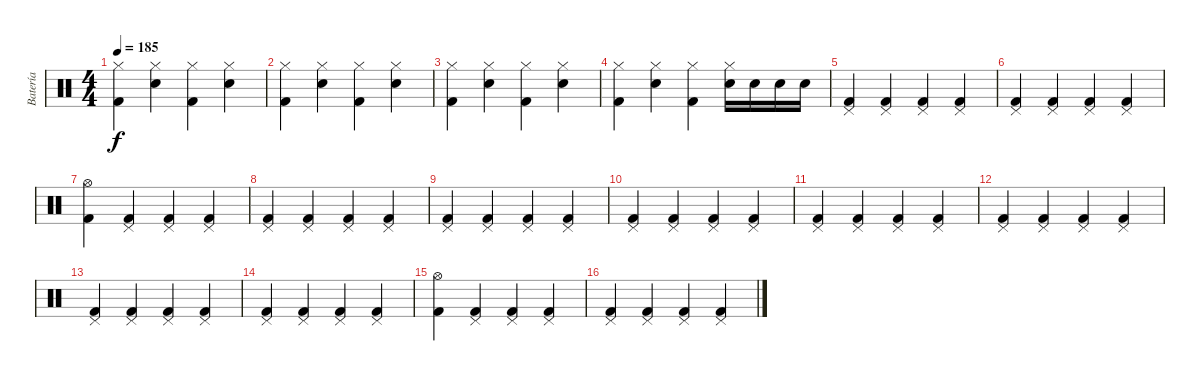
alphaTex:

\track ("Batería" "Batería") {instrument percussion}
\staff {score}
\articulation defaults
\ts (4 4)
\tempo 185
\clef neutral
\ks c
("Hi-Hat (closed)" "Kick (hit) 2").4{dy f} ("Hi-Hat (closed)" "Snare (hit) 2").4 ("Hi-Hat (closed)" "Kick (hit) 2").4 ("Hi-Hat (closed)" "Snare (hit) 2").4 |
("Hi-Hat (closed)" "Kick (hit) 2").4 ("Hi-Hat (closed)" "Snare (hit) 2").4 ("Hi-Hat (closed)" "Kick (hit) 2").4 ("Hi-Hat (closed)" "Snare (hit) 2").4 |
("Hi-Hat (closed)" "Kick (hit) 2").4 ("Hi-Hat (closed)" "Snare (hit) 2").4 ("Hi-Hat (closed)" "Kick (hit) 2").4 ("Hi-Hat (closed)" "Snare (hit) 2").4 |
("Hi-Hat (closed)" "Kick (hit) 2").4 ("Hi-Hat (closed)" "Snare (hit) 2").4 ("Hi-Hat (closed)" "Kick (hit) 2").4 ("Snare (hit) 2" "Hi-Hat (closed)").16 "Snare (hit) 2".16 "Snare (hit) 2".16 "Snare (hit) 2".16 |
("Pedal Hi-Hat (hit)" "Kick (hit) 2").4 ("Pedal Hi-Hat (hit)" "Kick (hit) 2").4 ("Pedal Hi-Hat (hit)" "Kick (hit) 2").4 ("Pedal Hi-Hat (hit)" "Kick (hit) 2").4 |
("Pedal Hi-Hat (hit)" "Kick (hit) 2").4 ("Pedal Hi-Hat (hit)" "Kick (hit) 2").4 ("Pedal Hi-Hat (hit)" "Kick (hit) 2").4 ("Pedal Hi-Hat (hit)" "Kick (hit) 2").4 |
("Hi-Hat (open)" "Kick (hit) 2").4 ("Pedal Hi-Hat (hit)" "Kick (hit) 2").4 ("Pedal Hi-Hat (hit)" "Kick (hit) 2").4 ("Pedal Hi-Hat (hit)" "Kick (hit) 2").4 |
("Pedal Hi-Hat (hit)" "Kick (hit) 2").4 ("Pedal Hi-Hat (hit)" "Kick (hit) 2").4 ("Pedal Hi-Hat (hit)" "Kick (hit) 2").4 ("Pedal Hi-Hat (hit)" "Kick (hit) 2").4 |
("Pedal Hi-Hat (hit)" "Kick (hit) 2").4 ("Pedal Hi-Hat (hit)" "Kick (hit) 2").4 ("Pedal Hi-Hat (hit)" "Kick (hit) 2").4 ("Pedal Hi-Hat (hit)" "Kick (hit) 2").4 |
("Pedal Hi-Hat (hit)" "Kick (hit) 2").4 ("Pedal Hi-Hat (hit)" "Kick (hit) 2").4 ("Pedal Hi-Hat (hit)" "Kick (hit) 2").4 ("Pedal Hi-Hat (hit)" "Kick (hit) 2").4 |
("Pedal Hi-Hat (hit)" "Kick (hit) 2").4 ("Pedal Hi-Hat (hit)" "Kick (hit) 2").4 ("Pedal Hi-Hat (hit)" "Kick (hit) 2").4 ("Pedal Hi-Hat (hit)" "Kick (hit) 2").4 |
("Pedal Hi-Hat (hit)" "Kick (hit) 2").4 ("Pedal Hi-Hat (hit)" "Kick (hit) 2").4 ("Pedal Hi-Hat (hit)" "Kick (hit) 2").4 ("Pedal Hi-Hat (hit)" "Kick (hit) 2").4 |
("Pedal Hi-Hat (hit)" "Kick (hit) 2").4 ("Pedal Hi-Hat (hit)" "Kick (hit) 2").4 ("Pedal Hi-Hat (hit)" "Kick (hit) 2").4 ("Pedal Hi-Hat (hit)" "Kick (hit) 2").4 |
("Pedal Hi-Hat (hit)" "Kick (hit) 2").4 ("Pedal Hi-Hat (hit)" "Kick (hit) 2").4 ("Pedal Hi-Hat (hit)" "Kick (hit) 2").4 ("Pedal Hi-Hat (hit)" "Kick (hit) 2").4 |
("Hi-Hat (open)" "Kick (hit) 2").4 ("Pedal Hi-Hat (hit)" "Kick (hit) 2").4 ("Pedal Hi-Hat (hit)" "Kick (hit) 2").4 ("Pedal Hi-Hat (hit)" "Kick (hit) 2").4 |
("Pedal Hi-Hat (hit)" "Kick (hit) 2").4 ("Pedal Hi-Hat (hit)" "Kick (hit) 2").4 ("Pedal Hi-Hat (hit)" "Kick (hit) 2").4 ("Pedal Hi-Hat (hit)" "Kick (hit) 2").4
